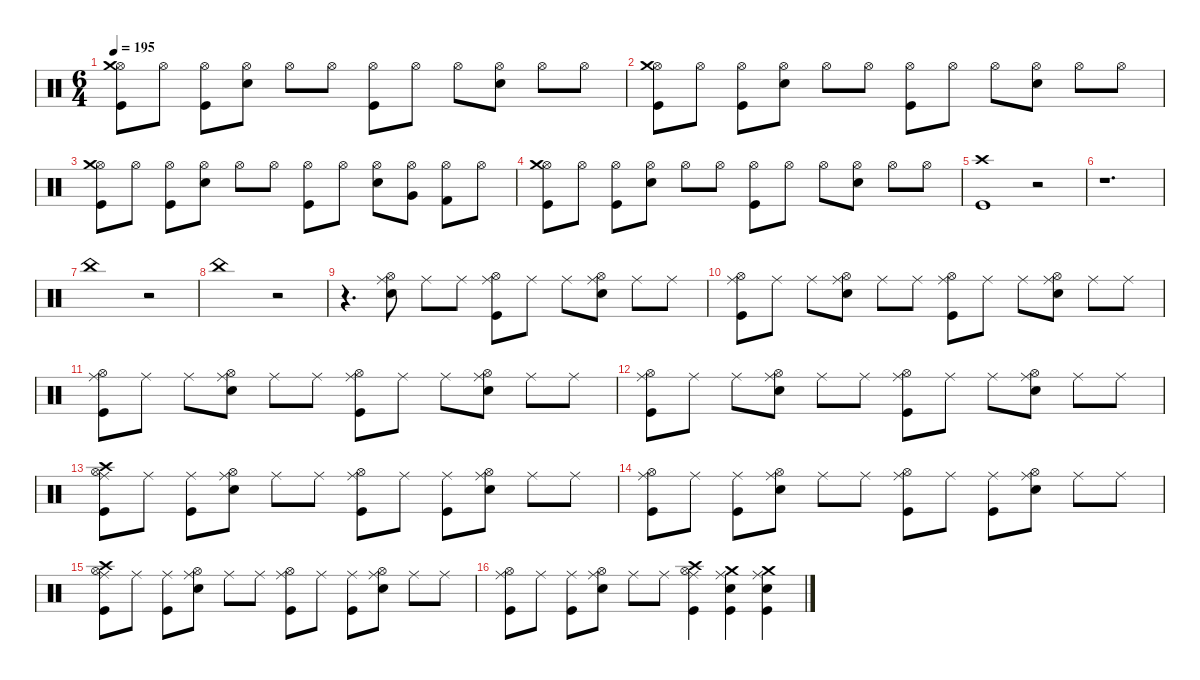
\defaultSystemsLayout 4
\hideDynamics
\bracketExtendMode nobrackets
\singleTrackTrackNamePolicy hidden
\multiTrackTrackNamePolicy hidden
\firstSystemTrackNameMode fullname
\firstSystemTrackNameOrientation horizontal
\otherSystemsTrackNameOrientation horizontal
\track ("Percussion" "drm.") {defaultSystemsLayout 2 instrument percussion}
\staff {score}
\articulation defaults
\ts (6 4)
\tempo 195
\clef neutral
\ks c
("Hi-Hat (open)" "Crash medium (hit)" "Kick (hit)").8{dy f beam Down} "Hi-Hat (open)".8{beam Down} ("Hi-Hat (open)" "Kick (hit)").8{beam Down} ("Hi-Hat (open)" "Snare (hit) 2").8{beam Down} "Hi-Hat (open)".8{beam Down} "Hi-Hat (open)".8{beam Down} ("Hi-Hat (open)" "Kick (hit)").8{beam Down} "Hi-Hat (open)".8{beam Down} "Hi-Hat (open)".8{beam Down} ("Hi-Hat (open)" "Snare (hit) 2").8{beam Down} "Hi-Hat (open)".8{beam Down} "Hi-Hat (open)".8{beam Down} |
("Hi-Hat (open)" "Crash medium (hit)" "Kick (hit)").8{beam Down} "Hi-Hat (open)".8{beam Down} ("Hi-Hat (open)" "Kick (hit)").8{beam Down} ("Hi-Hat (open)" "Snare (hit) 2").8{beam Down} "Hi-Hat (open)".8{beam Down} "Hi-Hat (open)".8{beam Down} ("Hi-Hat (open)" "Kick (hit)").8{beam Down} "Hi-Hat (open)".8{beam Down} "Hi-Hat (open)".8{beam Down} ("Hi-Hat (open)" "Snare (hit) 2").8{beam Down} "Hi-Hat (open)".8{beam Down} "Hi-Hat (open)".8{beam Down} |
("Hi-Hat (open)" "Crash medium (hit)" "Kick (hit)").8{beam Down} "Hi-Hat (open)".8{beam Down} ("Hi-Hat (open)" "Kick (hit)").8{beam Down} ("Hi-Hat (open)" "Snare (hit) 2").8{beam Down} "Hi-Hat (open)".8{beam Down} "Hi-Hat (open)".8{beam Down} ("Hi-Hat (open)" "Kick (hit)").8{beam Down} "Hi-Hat (open)".8{beam Down} ("Hi-Hat (open)" "Snare (hit) 2").8{beam Down} ("Hi-Hat (open)" "Very Low Tom (hit)").8{beam Down} ("Hi-Hat (open)" "Kick (hit) 2").8{beam Down} "Hi-Hat (open)".8{beam Down} |
("Hi-Hat (open)" "Crash medium (hit)" "Kick (hit)").8{beam Down} "Hi-Hat (open)".8{beam Down} ("Hi-Hat (open)" "Kick (hit)").8{beam Down} ("Hi-Hat (open)" "Snare (hit) 2").8{beam Down} "Hi-Hat (open)".8{beam Down} "Hi-Hat (open)".8{beam Down} ("Hi-Hat (open)" "Kick (hit)").8{beam Down} "Hi-Hat (open)".8{beam Down} "Hi-Hat (open)".8{beam Down} ("Hi-Hat (open)" "Snare (hit) 2").8{beam Down} "Hi-Hat (open)".8{beam Down} "Hi-Hat (open)".8{beam Down} |
("Crash high (hit)" "Kick (hit)").1{beam Down} r.2{beam Down} |
r.1{d beam Down} |
"China (hit)".1{beam Down} r.2{beam Down} |
"China (hit)".1{beam Down} r.2{beam Down} |
r.4{d beam Down} ("Hi-Hat (open)" "Ride (middle)" "Snare (hit) 2").8{beam Down} "Ride (middle)".8{beam Down} "Ride (middle)".8{beam Down} ("Hi-Hat (open)" "Ride (middle)" "Kick (hit)").8{beam Down} "Ride (middle)".8{beam Down} "Ride (middle)".8{beam Down} ("Hi-Hat (open)" "Ride (middle)" "Snare (hit) 2").8{beam Down} "Ride (middle)".8{beam Down} "Ride (middle)".8{beam Down} |
("Hi-Hat (open)" "Ride (middle)" "Kick (hit)").8{beam Down} "Ride (middle)".8{beam Down} "Ride (middle)".8{beam Down} ("Hi-Hat (open)" "Ride (middle)" "Snare (hit) 2").8{beam Down} "Ride (middle)".8{beam Down} "Ride (middle)".8{beam Down} ("Hi-Hat (open)" "Ride (middle)" "Kick (hit)").8{beam Down} "Ride (middle)".8{beam Down} "Ride (middle)".8{beam Down} ("Hi-Hat (open)" "Ride (middle)" "Snare (hit) 2").8{beam Down} "Ride (middle)".8{beam Down} "Ride (middle)".8{beam Down} |
("Hi-Hat (open)" "Ride (middle)" "Kick (hit)").8{beam Down} "Ride (middle)".8{beam Down} "Ride (middle)".8{beam Down} ("Hi-Hat (open)" "Ride (middle)" "Snare (hit) 2").8{beam Down} "Ride (middle)".8{beam Down} "Ride (middle)".8{beam Down} ("Hi-Hat (open)" "Ride (middle)" "Kick (hit)").8{beam Down} "Ride (middle)".8{beam Down} "Ride (middle)".8{beam Down} ("Hi-Hat (open)" "Ride (middle)" "Snare (hit) 2").8{beam Down} "Ride (middle)".8{beam Down} "Ride (middle)".8{beam Down} |
("Hi-Hat (open)" "Ride (middle)" "Kick (hit)").8{beam Down} "Ride (middle)".8{beam Down} "Ride (middle)".8{beam Down} ("Hi-Hat (open)" "Ride (middle)" "Snare (hit) 2").8{beam Down} "Ride (middle)".8{beam Down} "Ride (middle)".8{beam Down} ("Hi-Hat (open)" "Ride (middle)" "Kick (hit)").8{beam Down} "Ride (middle)".8{beam Down} "Ride (middle)".8{beam Down} ("Hi-Hat (open)" "Ride (middle)" "Snare (hit) 2").8{beam Down} "Ride (middle)".8{beam Down} "Ride (middle)".8{beam Down} |
("Hi-Hat (open)" "Ride (middle)" "Crash high (hit)" "Kick (hit)").8{beam Down} "Ride (middle)".8{beam Down} ("Ride (middle)" "Kick (hit)").8{beam Down} ("Hi-Hat (open)" "Ride (middle)" "Snare (hit) 2").8{beam Down} "Ride (middle)".8{beam Down} "Ride (middle)".8{beam Down} ("Hi-Hat (open)" "Ride (middle)" "Kick (hit)").8{beam Down} "Ride (middle)".8{beam Down} ("Ride (middle)" "Kick (hit)").8{beam Down} ("Hi-Hat (open)" "Ride (middle)" "Snare (hit) 2").8{beam Down} "Ride (middle)".8{beam Down} "Ride (middle)".8{beam Down} |
("Hi-Hat (open)" "Ride (middle)" "Kick (hit)").8{beam Down} "Ride (middle)".8{beam Down} ("Ride (middle)" "Kick (hit)").8{beam Down} ("Hi-Hat (open)" "Ride (middle)" "Snare (hit) 2").8{beam Down} "Ride (middle)".8{beam Down} "Ride (middle)".8{beam Down} ("Hi-Hat (open)" "Ride (middle)" "Kick (hit)").8{beam Down} "Ride (middle)".8{beam Down} ("Ride (middle)" "Kick (hit)").8{beam Down} ("Hi-Hat (open)" "Ride (middle)" "Snare (hit) 2").8{beam Down} "Ride (middle)".8{beam Down} "Ride (middle)".8{beam Down} |
("Hi-Hat (open)" "Ride (middle)" "Crash high (hit)" "Kick (hit)").8{beam Down} "Ride (middle)".8{beam Down} ("Ride (middle)" "Kick (hit)").8{beam Down} ("Hi-Hat (open)" "Ride (middle)" "Snare (hit) 2").8{beam Down} "Ride (middle)".8{beam Down} "Ride (middle)".8{beam Down} ("Hi-Hat (open)" "Ride (middle)" "Kick (hit)").8{beam Down} "Ride (middle)".8{beam Down} ("Ride (middle)" "Kick (hit)").8{beam Down} ("Hi-Hat (open)" "Ride (middle)" "Snare (hit) 2").8{beam Down} "Ride (middle)".8{beam Down} "Ride (middle)".8{beam Down} |
("Hi-Hat (open)" "Ride (middle)" "Kick (hit)").8{beam Down} "Ride (middle)".8{beam Down} ("Ride (middle)" "Kick (hit)").8{beam Down} ("Hi-Hat (open)" "Ride (middle)" "Snare (hit) 2").8{beam Down} "Ride (middle)".8{beam Down} "Ride (middle)".8{beam Down} ("Hi-Hat (open)" "Ride (middle)" "Crash high (hit)" "Kick (hit)").4{beam Down} ("Crash medium (hit)" "Ride (middle)" "Snare (hit) 2" "Kick (hit)").4{beam Down} ("Crash medium (hit)" "Ride (middle)" "Snare (hit) 2" "Kick (hit)").4{beam Down}
